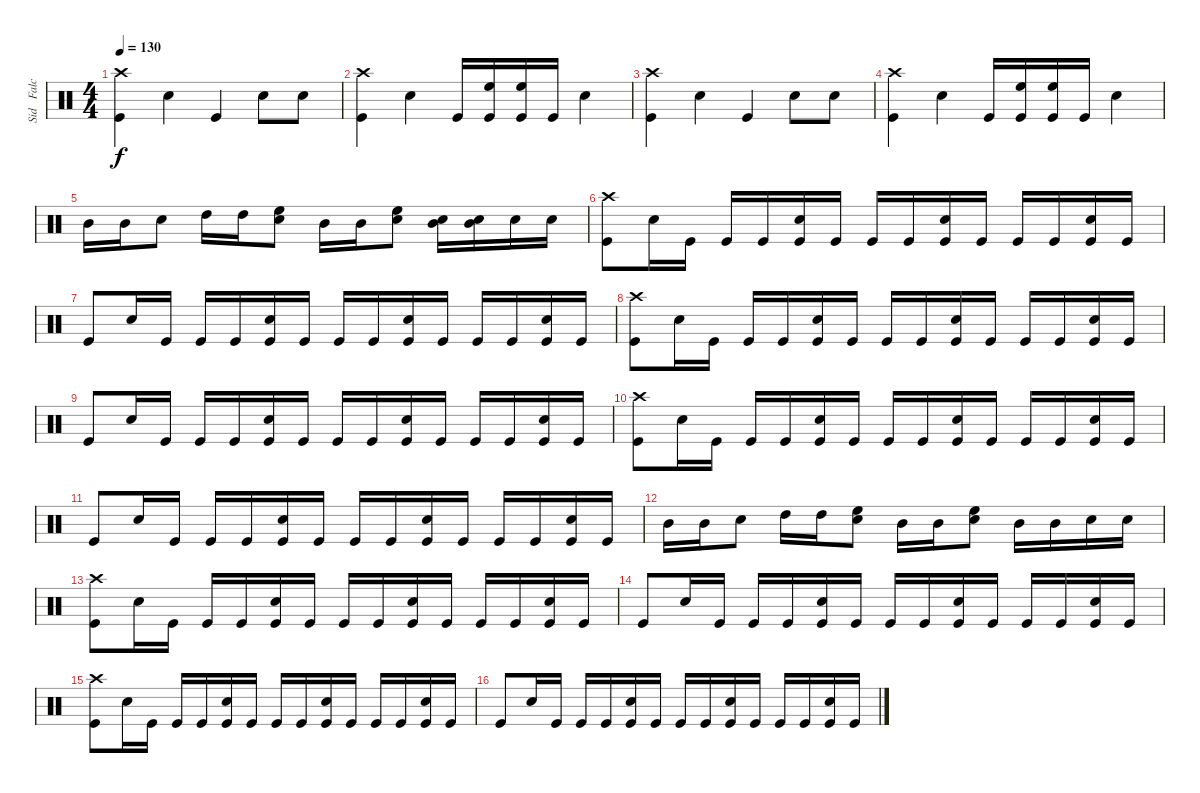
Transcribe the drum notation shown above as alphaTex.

\track ("Sid   Falck  - Drums" "Sid   Falc") {instrument percussion}
\staff {score}
\articulation defaults
\ts (4 4)
\tempo 130
\clef neutral
\ks c
("Crash high (hit)" "Kick (hit)").4{dy f} "Electric Snare (hit)".4 "Kick (hit)".4 "Electric Snare (hit)".8 "Electric Snare (hit)".8 |
("Crash high (hit)" "Kick (hit)").4 "Electric Snare (hit)".4 "Kick (hit)".16 ("High Floor Tom (hit)" "Kick (hit)").16 ("High Floor Tom (hit)" "Kick (hit)").16 "Kick (hit)".16 "Electric Snare (hit)".4 |
("Crash high (hit)" "Kick (hit)").4 "Electric Snare (hit)".4 "Kick (hit)".4 "Electric Snare (hit)".8 "Electric Snare (hit)".8 |
("Crash high (hit)" "Kick (hit)").4 "Electric Snare (hit)".4 "Kick (hit)".16 ("High Floor Tom (hit)" "Kick (hit)").16 ("High Floor Tom (hit)" "Kick (hit)").16 "Kick (hit)".16 "Electric Snare (hit)".4 |
"Mid Tom (hit)".16 "Mid Tom (hit)".16 "Electric Snare (hit)".8 "High Tom (hit)".16 "High Tom (hit)".16 ("High Floor Tom (hit)" "Electric Snare (hit)").8 "Mid Tom (hit)".16 "Mid Tom (hit)".16 ("High Floor Tom (hit)" "Electric Snare (hit)").8 ("Electric Snare (hit)" "Mid Tom (hit)").16 ("Electric Snare (hit)" "Mid Tom (hit)").16 "Electric Snare (hit)".16 "Electric Snare (hit)".16 |
("Crash high (hit)" "Kick (hit)").8 "Electric Snare (hit)".16 "Kick (hit)".16 "Kick (hit)".16 "Kick (hit)".16 ("Electric Snare (hit)" "Kick (hit)").16 "Kick (hit)".16 "Kick (hit)".16 "Kick (hit)".16 ("Electric Snare (hit)" "Kick (hit)").16 "Kick (hit)".16 "Kick (hit)".16 "Kick (hit)".16 ("Electric Snare (hit)" "Kick (hit)").16 "Kick (hit)".16 |
"Kick (hit)".8 "Electric Snare (hit)".16 "Kick (hit)".16 "Kick (hit)".16 "Kick (hit)".16 ("Electric Snare (hit)" "Kick (hit)").16 "Kick (hit)".16 "Kick (hit)".16 "Kick (hit)".16 ("Electric Snare (hit)" "Kick (hit)").16 "Kick (hit)".16 "Kick (hit)".16 "Kick (hit)".16 ("Electric Snare (hit)" "Kick (hit)").16 "Kick (hit)".16 |
("Crash high (hit)" "Kick (hit)").8 "Electric Snare (hit)".16 "Kick (hit)".16 "Kick (hit)".16 "Kick (hit)".16 ("Electric Snare (hit)" "Kick (hit)").16 "Kick (hit)".16 "Kick (hit)".16 "Kick (hit)".16 ("Electric Snare (hit)" "Kick (hit)").16 "Kick (hit)".16 "Kick (hit)".16 "Kick (hit)".16 ("Electric Snare (hit)" "Kick (hit)").16 "Kick (hit)".16 |
"Kick (hit)".8 "Electric Snare (hit)".16 "Kick (hit)".16 "Kick (hit)".16 "Kick (hit)".16 ("Electric Snare (hit)" "Kick (hit)").16 "Kick (hit)".16 "Kick (hit)".16 "Kick (hit)".16 ("Electric Snare (hit)" "Kick (hit)").16 "Kick (hit)".16 "Kick (hit)".16 "Kick (hit)".16 ("Electric Snare (hit)" "Kick (hit)").16 "Kick (hit)".16 |
("Crash high (hit)" "Kick (hit)").8 "Electric Snare (hit)".16 "Kick (hit)".16 "Kick (hit)".16 "Kick (hit)".16 ("Electric Snare (hit)" "Kick (hit)").16 "Kick (hit)".16 "Kick (hit)".16 "Kick (hit)".16 ("Electric Snare (hit)" "Kick (hit)").16 "Kick (hit)".16 "Kick (hit)".16 "Kick (hit)".16 ("Electric Snare (hit)" "Kick (hit)").16 "Kick (hit)".16 |
"Kick (hit)".8 "Electric Snare (hit)".16 "Kick (hit)".16 "Kick (hit)".16 "Kick (hit)".16 ("Electric Snare (hit)" "Kick (hit)").16 "Kick (hit)".16 "Kick (hit)".16 "Kick (hit)".16 ("Electric Snare (hit)" "Kick (hit)").16 "Kick (hit)".16 "Kick (hit)".16 "Kick (hit)".16 ("Electric Snare (hit)" "Kick (hit)").16 "Kick (hit)".16 |
"Mid Tom (hit)".16 "Mid Tom (hit)".16 "Electric Snare (hit)".8 "High Tom (hit)".16 "High Tom (hit)".16 ("High Floor Tom (hit)" "Electric Snare (hit)").8 "Mid Tom (hit)".16 "Mid Tom (hit)".16 ("High Floor Tom (hit)" "Electric Snare (hit)").8 "Mid Tom (hit)".16 "Mid Tom (hit)".16 "Electric Snare (hit)".16 "Electric Snare (hit)".16 |
("Crash high (hit)" "Kick (hit)").8 "Electric Snare (hit)".16 "Kick (hit)".16 "Kick (hit)".16 "Kick (hit)".16 ("Electric Snare (hit)" "Kick (hit)").16 "Kick (hit)".16 "Kick (hit)".16 "Kick (hit)".16 ("Electric Snare (hit)" "Kick (hit)").16 "Kick (hit)".16 "Kick (hit)".16 "Kick (hit)".16 ("Electric Snare (hit)" "Kick (hit)").16 "Kick (hit)".16 |
"Kick (hit)".8 "Electric Snare (hit)".16 "Kick (hit)".16 "Kick (hit)".16 "Kick (hit)".16 ("Electric Snare (hit)" "Kick (hit)").16 "Kick (hit)".16 "Kick (hit)".16 "Kick (hit)".16 ("Electric Snare (hit)" "Kick (hit)").16 "Kick (hit)".16 "Kick (hit)".16 "Kick (hit)".16 ("Electric Snare (hit)" "Kick (hit)").16 "Kick (hit)".16 |
("Crash high (hit)" "Kick (hit)").8 "Electric Snare (hit)".16 "Kick (hit)".16 "Kick (hit)".16 "Kick (hit)".16 ("Electric Snare (hit)" "Kick (hit)").16 "Kick (hit)".16 "Kick (hit)".16 "Kick (hit)".16 ("Electric Snare (hit)" "Kick (hit)").16 "Kick (hit)".16 "Kick (hit)".16 "Kick (hit)".16 ("Electric Snare (hit)" "Kick (hit)").16 "Kick (hit)".16 |
"Kick (hit)".8 "Electric Snare (hit)".16 "Kick (hit)".16 "Kick (hit)".16 "Kick (hit)".16 ("Electric Snare (hit)" "Kick (hit)").16 "Kick (hit)".16 "Kick (hit)".16 "Kick (hit)".16 ("Electric Snare (hit)" "Kick (hit)").16 "Kick (hit)".16 "Kick (hit)".16 "Kick (hit)".16 ("Electric Snare (hit)" "Kick (hit)").16 "Kick (hit)".16
